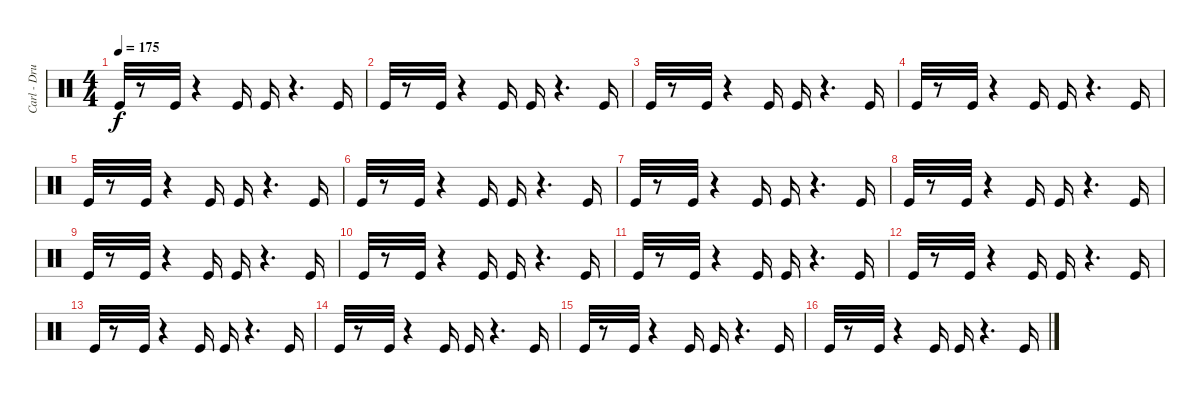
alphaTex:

\track ("Carl - Drums I" "Carl - Dru") {instrument percussion}
\staff {score}
\articulation defaults
\ts (4 4)
\tempo 175
\clef neutral
\ks c "Kick (hit)".32{dy f}
r.8 "Kick (hit)".32 r.4 "Kick (hit)".16 "Kick (hit)".16 r.4{d} "Kick (hit)".16 |
"Kick (hit)".32 r.8 "Kick (hit)".32 r.4 "Kick (hit)".16 "Kick (hit)".16 r.4{d} "Kick (hit)".16 |
"Kick (hit)".32 r.8 "Kick (hit)".32 r.4 "Kick (hit)".16 "Kick (hit)".16 r.4{d} "Kick (hit)".16 |
"Kick (hit)".32 r.8 "Kick (hit)".32 r.4 "Kick (hit)".16 "Kick (hit)".16 r.4{d} "Kick (hit)".16 |
"Kick (hit)".32 r.8 "Kick (hit)".32 r.4 "Kick (hit)".16 "Kick (hit)".16 r.4{d} "Kick (hit)".16 |
"Kick (hit)".32 r.8 "Kick (hit)".32 r.4 "Kick (hit)".16 "Kick (hit)".16 r.4{d} "Kick (hit)".16 |
"Kick (hit)".32 r.8 "Kick (hit)".32 r.4 "Kick (hit)".16 "Kick (hit)".16 r.4{d} "Kick (hit)".16 |
"Kick (hit)".32 r.8 "Kick (hit)".32 r.4 "Kick (hit)".16 "Kick (hit)".16 r.4{d} "Kick (hit)".16 |
"Kick (hit)".32 r.8 "Kick (hit)".32 r.4 "Kick (hit)".16 "Kick (hit)".16 r.4{d} "Kick (hit)".16 |
"Kick (hit)".32 r.8 "Kick (hit)".32 r.4 "Kick (hit)".16 "Kick (hit)".16 r.4{d} "Kick (hit)".16 |
"Kick (hit)".32 r.8 "Kick (hit)".32 r.4 "Kick (hit)".16 "Kick (hit)".16 r.4{d} "Kick (hit)".16 |
"Kick (hit)".32 r.8 "Kick (hit)".32 r.4 "Kick (hit)".16 "Kick (hit)".16 r.4{d} "Kick (hit)".16 |
"Kick (hit)".32 r.8 "Kick (hit)".32 r.4 "Kick (hit)".16 "Kick (hit)".16 r.4{d} "Kick (hit)".16 |
"Kick (hit)".32 r.8 "Kick (hit)".32 r.4 "Kick (hit)".16 "Kick (hit)".16 r.4{d} "Kick (hit)".16 |
"Kick (hit)".32 r.8 "Kick (hit)".32 r.4 "Kick (hit)".16 "Kick (hit)".16 r.4{d} "Kick (hit)".16 |
"Kick (hit)".32 r.8 "Kick (hit)".32 r.4 "Kick (hit)".16 "Kick (hit)".16 r.4{d} "Kick (hit)".16
